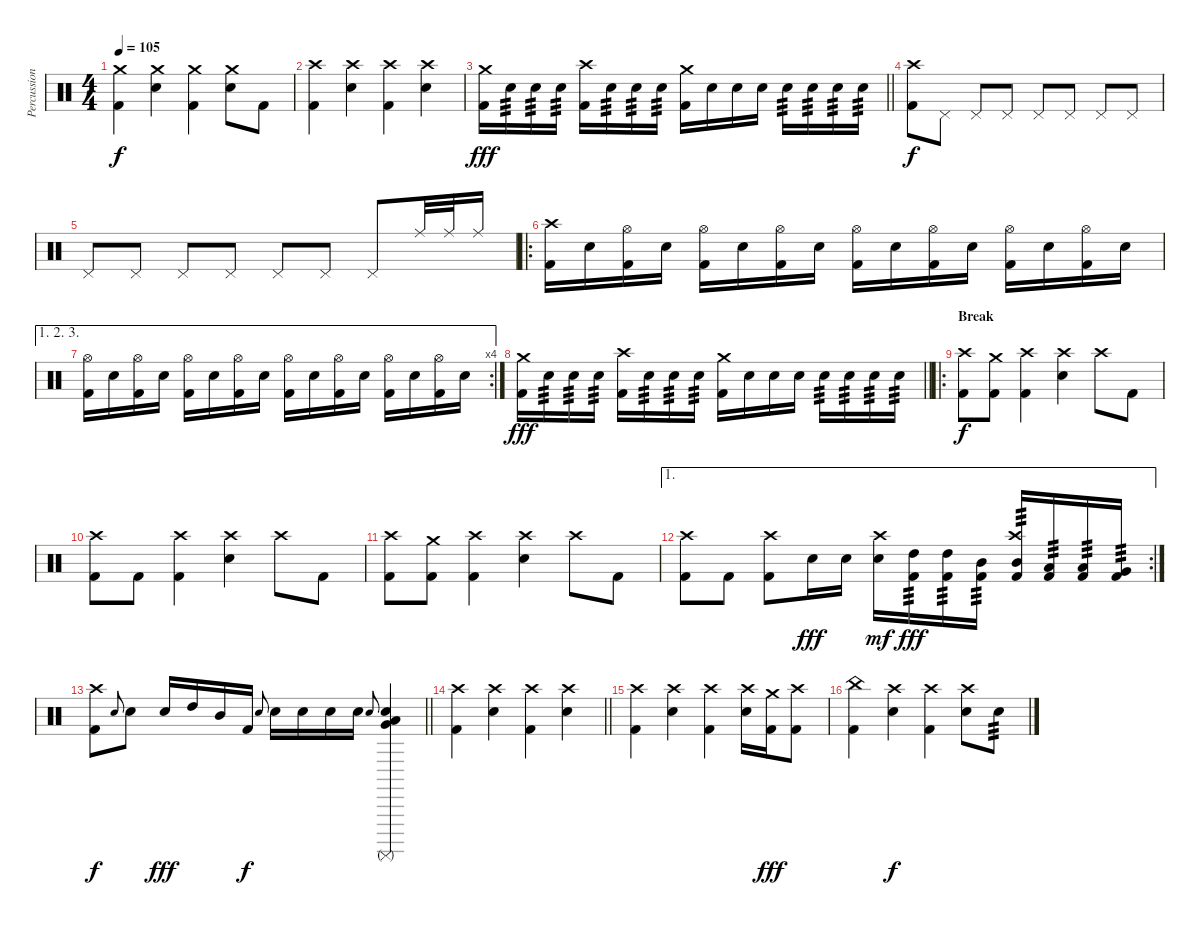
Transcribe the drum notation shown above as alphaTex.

\track ("Percussions" "Percussion") {instrument percussion}
\staff {score}
\articulation defaults
\ts (4 4)
\tempo 105
\clef neutral
\ks c
("Crash medium (hit)" "Kick (hit) 2").4{dy f} ("Crash medium (hit)" "Electric Snare (hit)").4 ("Crash medium (hit)" "Kick (hit) 2").4 ("Crash medium (hit)" "Electric Snare (hit)").8 "Kick (hit) 2".8 |
("Crash high (hit)" "Kick (hit) 2").4 ("Crash high (hit)" "Electric Snare (hit)").4 ("Crash high (hit)" "Kick (hit) 2").4 ("Crash high (hit)" "Electric Snare (hit)").4 |
\barLineRight lightlight
("Crash medium (hit)" "Kick (hit) 2").16{dy fff} "Electric Snare (hit)".16{tp 3} "Electric Snare (hit)".16{tp 3} "Electric Snare (hit)".16{tp 3} ("Crash high (hit)" "Kick (hit) 2").16 "Electric Snare (hit)".16{tp 3} "Electric Snare (hit)".16{tp 3} "Electric Snare (hit)".16{tp 3} ("Crash medium (hit)" "Kick (hit) 2").16 "Electric Snare (hit)".16 "Electric Snare (hit)".16 "Electric Snare (hit)".16 "Electric Snare (hit)".16{tp 3} "Electric Snare (hit)".16{tp 3} "Electric Snare (hit)".16{tp 3} "Electric Snare (hit)".16{tp 3} |
\section ("" "")
("Crash high (hit)" "Kick (hit) 2").8{dy f} "Pedal Hi-Hat (hit)".8 "Pedal Hi-Hat (hit)".8 "Pedal Hi-Hat (hit)".8 "Pedal Hi-Hat (hit)".8 "Pedal Hi-Hat (hit)".8 "Pedal Hi-Hat (hit)".8 "Pedal Hi-Hat (hit)".8 |
"Pedal Hi-Hat (hit)".8 "Pedal Hi-Hat (hit)".8 "Pedal Hi-Hat (hit)".8 "Pedal Hi-Hat (hit)".8 "Pedal Hi-Hat (hit)".8 "Pedal Hi-Hat (hit)".8 "Pedal Hi-Hat (hit)".8 "Ride (middle)".32 "Ride (middle)".32 "Ride (middle)".16 |
\ro
("Crash high (hit)" "Kick (hit) 2").16 "Electric Snare (hit)".16 ("Hi-Hat (open)" "Kick (hit) 2").16 "Electric Snare (hit)".16 ("Hi-Hat (open)" "Kick (hit) 2").16 "Electric Snare (hit)".16 ("Hi-Hat (open)" "Kick (hit) 2").16 "Electric Snare (hit)".16 ("Hi-Hat (open)" "Kick (hit) 2").16 "Electric Snare (hit)".16 ("Hi-Hat (open)" "Kick (hit) 2").16 "Electric Snare (hit)".16 ("Hi-Hat (open)" "Kick (hit) 2").16 "Electric Snare (hit)".16 ("Hi-Hat (open)" "Kick (hit) 2").16 "Electric Snare (hit)".16 |
\ae (1 2 3)
\rc 4
("Hi-Hat (open)" "Kick (hit) 2").16 "Electric Snare (hit)".16 ("Hi-Hat (open)" "Kick (hit) 2").16 "Electric Snare (hit)".16 ("Hi-Hat (open)" "Kick (hit) 2").16 "Electric Snare (hit)".16 ("Hi-Hat (open)" "Kick (hit) 2").16 "Electric Snare (hit)".16 ("Hi-Hat (open)" "Kick (hit) 2").16 "Electric Snare (hit)".16 ("Hi-Hat (open)" "Kick (hit) 2").16 "Electric Snare (hit)".16 ("Hi-Hat (open)" "Kick (hit) 2").16 "Electric Snare (hit)".16 ("Hi-Hat (open)" "Kick (hit) 2").16 "Electric Snare (hit)".16 |
\barLineRight lightlight
("Crash medium (hit)" "Kick (hit) 2").16{dy fff} "Electric Snare (hit)".16{tp 3} "Electric Snare (hit)".16{tp 3} "Electric Snare (hit)".16{tp 3} ("Crash high (hit)" "Kick (hit) 2").16 "Electric Snare (hit)".16{tp 3} "Electric Snare (hit)".16{tp 3} "Electric Snare (hit)".16{tp 3} ("Crash medium (hit)" "Kick (hit) 2").16 "Electric Snare (hit)".16 "Electric Snare (hit)".16 "Electric Snare (hit)".16 "Electric Snare (hit)".16{tp 3} "Electric Snare (hit)".16{tp 3} "Electric Snare (hit)".16{tp 3} "Electric Snare (hit)".16{tp 3} |
\ro
\section ("" "Break")
("Crash high (hit)" "Kick (hit) 2").8{dy f} ("Crash medium (hit)" "Kick (hit) 2").8 ("Crash high (hit)" "Kick (hit) 2").4 ("Crash high (hit)" "Electric Snare (hit)").4 "Crash high (hit)".8 "Kick (hit) 2".8 |
("Crash high (hit)" "Kick (hit) 2").8 "Kick (hit) 2".8 ("Crash high (hit)" "Kick (hit) 2").4 ("Crash high (hit)" "Electric Snare (hit)").4 "Crash high (hit)".8 "Kick (hit) 2".8 |
("Crash high (hit)" "Kick (hit) 2").8 ("Crash medium (hit)" "Kick (hit) 2").8 ("Crash high (hit)" "Kick (hit) 2").4 ("Crash high (hit)" "Electric Snare (hit)").4 "Crash high (hit)".8 "Kick (hit) 2".8 |
\ae 1
\rc 2
("Crash high (hit)" "Kick (hit) 2").8 "Kick (hit) 2".8 ("Crash high (hit)" "Kick (hit) 2").8 "Electric Snare (hit)".16{dy fff} "Electric Snare (hit)".16 ("Crash high (hit)" "Electric Snare (hit)").16{dy mf} ("High Tom (hit)" "Kick (hit) 2").16{tp 3 dy fff} ("High Tom (hit)" "Kick (hit) 2").16{tp 3} ("Mid Tom (hit)" "Kick (hit) 2").16{tp 3} ("Crash high (hit)" "Mid Tom (hit)" "Kick (hit) 2").16{tp 3} ("Low Tom (hit)" "Kick (hit) 2").16{tp 3} ("Low Tom (hit)" "Kick (hit) 2").16{tp 3} ("Very Low Tom (hit)" "Kick (hit) 2").16{tp 3} |
\barLineRight lightlight
("Crash high (hit)" "Kick (hit) 2").8{dy f} "Electric Snare (hit)".8{gr onbeat} "Electric Snare (hit)".8 "Electric Snare (hit)".16{dy fff} "High Tom (hit)".16 "Mid Tom (hit)".16 "Kick (hit) 2".16{dy f} "Electric Snare (hit)".8{gr onbeat} "Electric Snare (hit)".16 "Electric Snare (hit)".16 "Electric Snare (hit)".16 "Electric Snare (hit)".16 "Electric Snare (hit)".8{gr onbeat} ("Electric Snare (hit)" "Very Low Tom (hit)" "Low Floor Tom (hit)" "Surdo (mute)").4 |
\section ("" "")
\barLineRight lightlight
("Crash high (hit)" "Kick (hit) 2").4 ("Crash high (hit)" "Electric Snare (hit)").4 ("Crash high (hit)" "Kick (hit) 2").4 ("Crash high (hit)" "Electric Snare (hit)").4 |
("Crash high (hit)" "Kick (hit) 2").4 ("Crash high (hit)" "Electric Snare (hit)").4 ("Crash high (hit)" "Kick (hit) 2").4 ("Crash high (hit)" "Electric Snare (hit)").16 ("Crash medium (hit)" "Kick (hit) 2").16{dy fff} ("Crash high (hit)" "Kick (hit) 2").8 |
("China (hit)" "Kick (hit) 2").4 ("Crash high (hit)" "Electric Snare (hit)").4{dy f} ("Crash high (hit)" "Kick (hit) 2").4 ("Crash high (hit)" "Electric Snare (hit)").8 "Electric Snare (hit)".8{tp 3}
